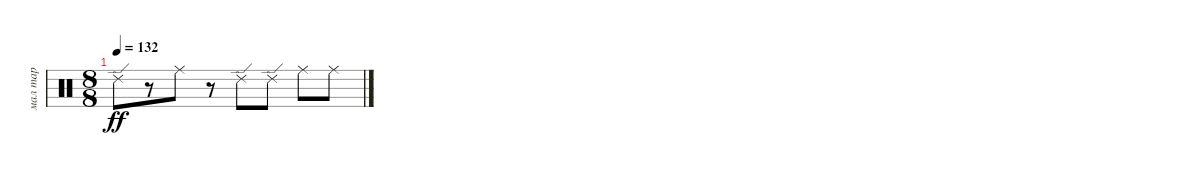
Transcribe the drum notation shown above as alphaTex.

\track ("мал тар" "мал тар") {instrument percussion}
\staff {score}
\articulation defaults
\ts (8 8)
\tempo 132
\clef neutral
\ks c "Ride (edge) 2".8{dy ff}
r.8 "Ride (middle)".8 r.8 "Ride (edge) 2".8 "Ride (edge) 2".8 "Ride (middle)".8 "Ride (middle)".8
